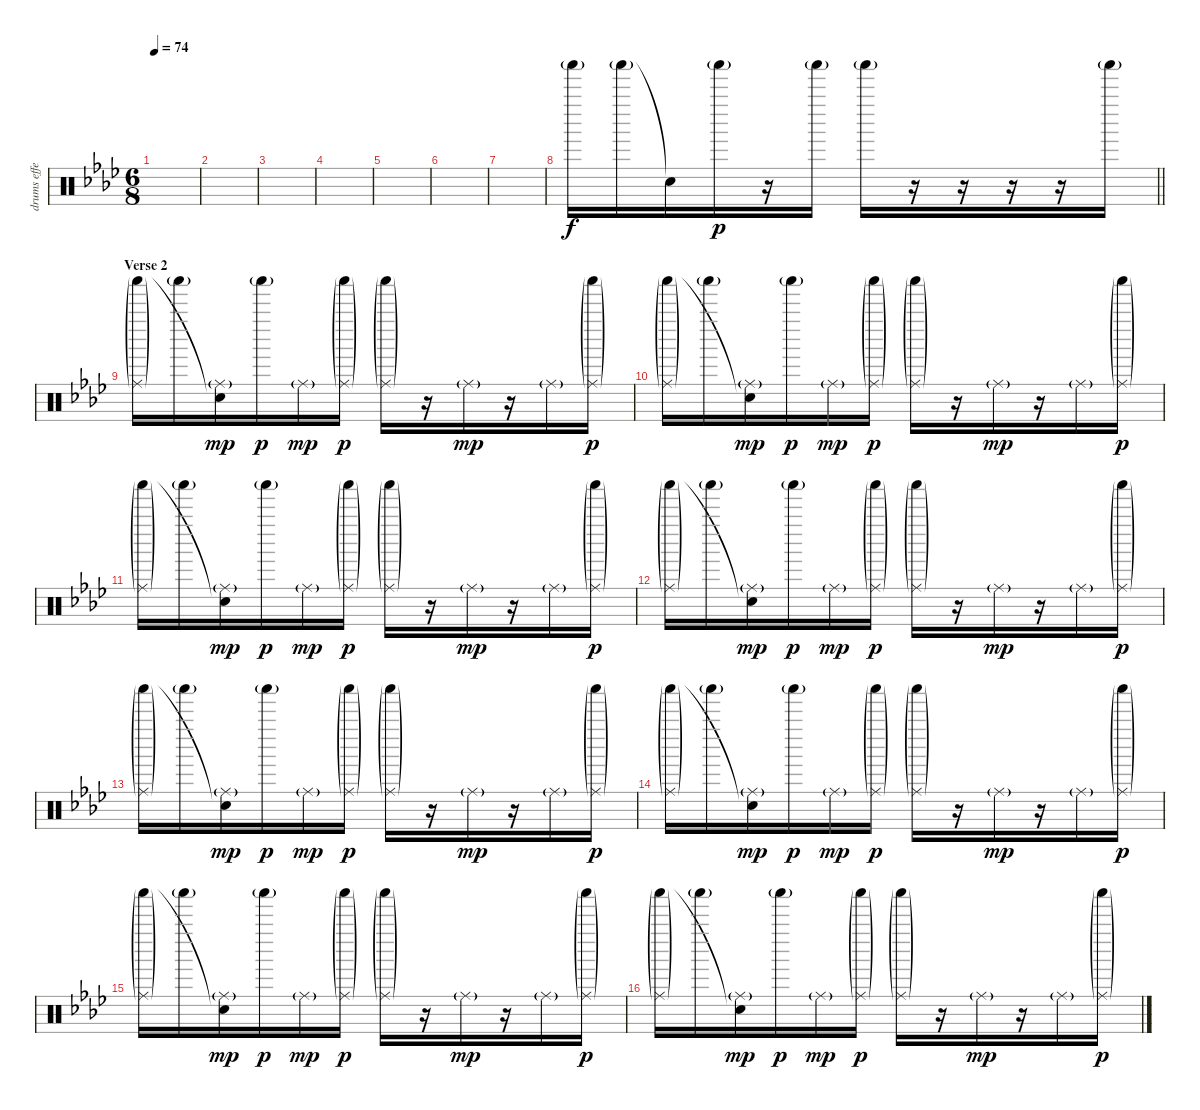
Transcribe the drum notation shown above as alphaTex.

\track ("drums effect" "drums effe") {instrument percussion}
\staff {score}
\articulation defaults
\ts (6 8)
\tempo 74
\clef neutral
\ks ab
|
|
|
|
|
|
|
\barLineRight lightlight "Shaker (hit)"{g}.16 "Shaker (hit)"{g}.16 "Snare (hit)"{t}.16{dy f} "Shaker (hit)"{g}.16{dy p}
r.16 "Shaker (hit)"{g}.16 "Shaker (hit)"{g}.16 r.16 r.16 r.16 r.16 "Shaker (hit)"{g}.16 |
\section ("" "Verse 2")
("Ride (middle)"{g} "Shaker (hit)"{g}).16 "Shaker (hit)"{g}.16 ("Ride (middle)"{g} "Snare (hit)"{t}).16{dy mp} "Shaker (hit)"{g}.16{dy p} "Ride (middle)"{g}.16{dy mp} ("Ride (middle)"{g} "Shaker (hit)"{g}).16{dy p} ("Ride (middle)"{g} "Shaker (hit)"{g}).16 r.16 "Ride (middle)"{g}.16{dy mp} r.16 "Ride (middle)"{g}.16 ("Ride (middle)"{g} "Shaker (hit)"{g}).16{dy p} |
("Ride (middle)"{g} "Shaker (hit)"{g}).16 "Shaker (hit)"{g}.16 ("Ride (middle)"{g} "Snare (hit)"{t}).16{dy mp} "Shaker (hit)"{g}.16{dy p} "Ride (middle)"{g}.16{dy mp} ("Ride (middle)"{g} "Shaker (hit)"{g}).16{dy p} ("Ride (middle)"{g} "Shaker (hit)"{g}).16 r.16 "Ride (middle)"{g}.16{dy mp} r.16 "Ride (middle)"{g}.16 ("Ride (middle)"{g} "Shaker (hit)"{g}).16{dy p} |
("Ride (middle)"{g} "Shaker (hit)"{g}).16 "Shaker (hit)"{g}.16 ("Ride (middle)"{g} "Snare (hit)"{t}).16{dy mp} "Shaker (hit)"{g}.16{dy p} "Ride (middle)"{g}.16{dy mp} ("Ride (middle)"{g} "Shaker (hit)"{g}).16{dy p} ("Ride (middle)"{g} "Shaker (hit)"{g}).16 r.16 "Ride (middle)"{g}.16{dy mp} r.16 "Ride (middle)"{g}.16 ("Ride (middle)"{g} "Shaker (hit)"{g}).16{dy p} |
("Ride (middle)"{g} "Shaker (hit)"{g}).16 "Shaker (hit)"{g}.16 ("Ride (middle)"{g} "Snare (hit)"{t}).16{dy mp} "Shaker (hit)"{g}.16{dy p} "Ride (middle)"{g}.16{dy mp} ("Ride (middle)"{g} "Shaker (hit)"{g}).16{dy p} ("Ride (middle)"{g} "Shaker (hit)"{g}).16 r.16 "Ride (middle)"{g}.16{dy mp} r.16 "Ride (middle)"{g}.16 ("Ride (middle)"{g} "Shaker (hit)"{g}).16{dy p} |
("Ride (middle)"{g} "Shaker (hit)"{g}).16 "Shaker (hit)"{g}.16 ("Ride (middle)"{g} "Snare (hit)"{t}).16{dy mp} "Shaker (hit)"{g}.16{dy p} "Ride (middle)"{g}.16{dy mp} ("Ride (middle)"{g} "Shaker (hit)"{g}).16{dy p} ("Ride (middle)"{g} "Shaker (hit)"{g}).16 r.16 "Ride (middle)"{g}.16{dy mp} r.16 "Ride (middle)"{g}.16 ("Ride (middle)"{g} "Shaker (hit)"{g}).16{dy p} |
("Ride (middle)"{g} "Shaker (hit)"{g}).16 "Shaker (hit)"{g}.16 ("Ride (middle)"{g} "Snare (hit)"{t}).16{dy mp} "Shaker (hit)"{g}.16{dy p} "Ride (middle)"{g}.16{dy mp} ("Ride (middle)"{g} "Shaker (hit)"{g}).16{dy p} ("Ride (middle)"{g} "Shaker (hit)"{g}).16 r.16 "Ride (middle)"{g}.16{dy mp} r.16 "Ride (middle)"{g}.16 ("Ride (middle)"{g} "Shaker (hit)"{g}).16{dy p} |
("Ride (middle)"{g} "Shaker (hit)"{g}).16 "Shaker (hit)"{g}.16 ("Ride (middle)"{g} "Snare (hit)"{t}).16{dy mp} "Shaker (hit)"{g}.16{dy p} "Ride (middle)"{g}.16{dy mp} ("Ride (middle)"{g} "Shaker (hit)"{g}).16{dy p} ("Ride (middle)"{g} "Shaker (hit)"{g}).16 r.16 "Ride (middle)"{g}.16{dy mp} r.16 "Ride (middle)"{g}.16 ("Ride (middle)"{g} "Shaker (hit)"{g}).16{dy p} |
("Ride (middle)"{g} "Shaker (hit)"{g}).16 "Shaker (hit)"{g}.16 ("Ride (middle)"{g} "Snare (hit)"{t}).16{dy mp} "Shaker (hit)"{g}.16{dy p} "Ride (middle)"{g}.16{dy mp} ("Ride (middle)"{g} "Shaker (hit)"{g}).16{dy p} ("Ride (middle)"{g} "Shaker (hit)"{g}).16 r.16 "Ride (middle)"{g}.16{dy mp} r.16 "Ride (middle)"{g}.16 ("Ride (middle)"{g} "Shaker (hit)"{g}).16{dy p}
